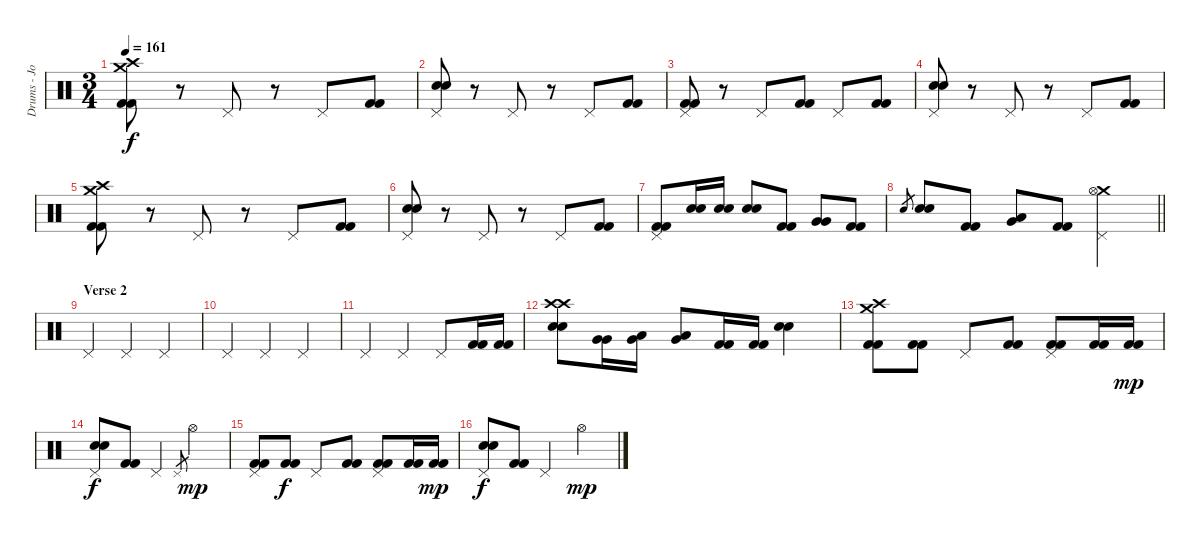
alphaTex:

\track ("Drums - Jon Wilkes" "Drums - Jo") {instrument percussion}
\staff {score}
\articulation defaults
\ts (3 4)
\tempo 161
\clef neutral
\ks c
("Crash medium (hit)" "Crash high (hit)" "Kick (hit) 2" "Kick (hit) 2").8{dy f} r.8 "Pedal Hi-Hat (hit)".8 r.8 "Pedal Hi-Hat (hit)".8 ("Kick (hit) 2" "Kick (hit) 2").8 |
("Pedal Hi-Hat (hit)" "Electric Snare (hit)" "Electric Snare (hit)").8 r.8 "Pedal Hi-Hat (hit)".8 r.8 "Pedal Hi-Hat (hit)".8 ("Kick (hit) 2" "Kick (hit) 2").8 |
("Pedal Hi-Hat (hit)" "Kick (hit) 2" "Kick (hit) 2").8 r.8 "Pedal Hi-Hat (hit)".8 ("Kick (hit) 2" "Kick (hit) 2").8 "Pedal Hi-Hat (hit)".8 ("Kick (hit) 2" "Kick (hit) 2").8 |
("Pedal Hi-Hat (hit)" "Electric Snare (hit)" "Electric Snare (hit)").8 r.8 "Pedal Hi-Hat (hit)".8 r.8 "Pedal Hi-Hat (hit)".8 ("Kick (hit) 2" "Kick (hit) 2").8 |
("Crash medium (hit)" "Crash high (hit)" "Kick (hit) 2" "Kick (hit) 2").8 r.8 "Pedal Hi-Hat (hit)".8 r.8 "Pedal Hi-Hat (hit)".8 ("Kick (hit) 2" "Kick (hit) 2").8 |
("Pedal Hi-Hat (hit)" "Electric Snare (hit)" "Electric Snare (hit)").8 r.8 "Pedal Hi-Hat (hit)".8 r.8 "Pedal Hi-Hat (hit)".8 ("Kick (hit) 2" "Kick (hit) 2").8 |
("Pedal Hi-Hat (hit)" "Kick (hit) 2" "Kick (hit) 2").8 ("Electric Snare (hit)" "Electric Snare (hit)").16 ("Electric Snare (hit)" "Electric Snare (hit)").16 ("Electric Snare (hit)" "Electric Snare (hit)").8 ("Kick (hit) 2" "Kick (hit) 2").8 ("Very Low Tom (hit)" "Very Low Tom (hit)").8 ("Kick (hit) 2" "Kick (hit) 2").8 |
\barLineRight lightlight "Electric Snare (hit)".8{gr}
("Electric Snare (hit)" "Electric Snare (hit)").8 ("Kick (hit) 2" "Kick (hit) 2").8 ("Low Floor Tom (hit)" "Very Low Tom (hit)").8 ("Kick (hit) 2" "Kick (hit) 2").8 ("Crash medium (hit)" "Pedal Hi-Hat (hit)" "Hi-Hat (open)").4 |
\section ("" "Verse 2")
"Pedal Hi-Hat (hit)".4 "Pedal Hi-Hat (hit)".4 "Pedal Hi-Hat (hit)".4 |
"Pedal Hi-Hat (hit)".4 "Pedal Hi-Hat (hit)".4 "Pedal Hi-Hat (hit)".4 |
"Pedal Hi-Hat (hit)".4 "Pedal Hi-Hat (hit)".4 "Pedal Hi-Hat (hit)".8 ("Kick (hit) 2" "Kick (hit) 2").16 ("Kick (hit) 2" "Kick (hit) 2").16 |
("Crash high (hit)" "Crash high (hit)" "Electric Snare (hit)" "Electric Snare (hit)").8 ("Very Low Tom (hit)" "Very Low Tom (hit)").16 ("Very Low Tom (hit)" "Low Floor Tom (hit)").16 ("Very Low Tom (hit)" "Low Floor Tom (hit)").8 ("Kick (hit) 2" "Kick (hit) 2").16 ("Kick (hit) 2" "Kick (hit) 2").16 ("Electric Snare (hit)" "Electric Snare (hit)").4 |
("Crash medium (hit)" "Crash high (hit)" "Kick (hit) 2" "Kick (hit) 2").8 ("Kick (hit) 2" "Kick (hit) 2").8 "Pedal Hi-Hat (hit)".8 ("Kick (hit) 2" "Kick (hit) 2").8 ("Pedal Hi-Hat (hit)" "Kick (hit) 2" "Kick (hit) 2").8 ("Kick (hit) 2" "Kick (hit) 2").16 ("Kick (hit) 2" "Kick (hit) 2").16{dy mp} |
("Pedal Hi-Hat (hit)" "Electric Snare (hit)" "Electric Snare (hit)").8{dy f} ("Kick (hit) 2" "Kick (hit) 2").8 "Pedal Hi-Hat (hit)".4 "Pedal Hi-Hat (hit)".8{gr} "Hi-Hat (open)".4{dy mp} |
("Pedal Hi-Hat (hit)" "Kick (hit) 2" "Kick (hit) 2").8 ("Kick (hit) 2" "Kick (hit) 2").8{dy f} "Pedal Hi-Hat (hit)".8 ("Kick (hit) 2" "Kick (hit) 2").8 ("Pedal Hi-Hat (hit)" "Kick (hit) 2" "Kick (hit) 2").8 ("Kick (hit) 2" "Kick (hit) 2").16 ("Kick (hit) 2" "Kick (hit) 2").16{dy mp} |
("Pedal Hi-Hat (hit)" "Electric Snare (hit)" "Electric Snare (hit)").8{dy f} ("Kick (hit) 2" "Kick (hit) 2").8 "Pedal Hi-Hat (hit)".4 "Hi-Hat (open)".4{dy mp}
